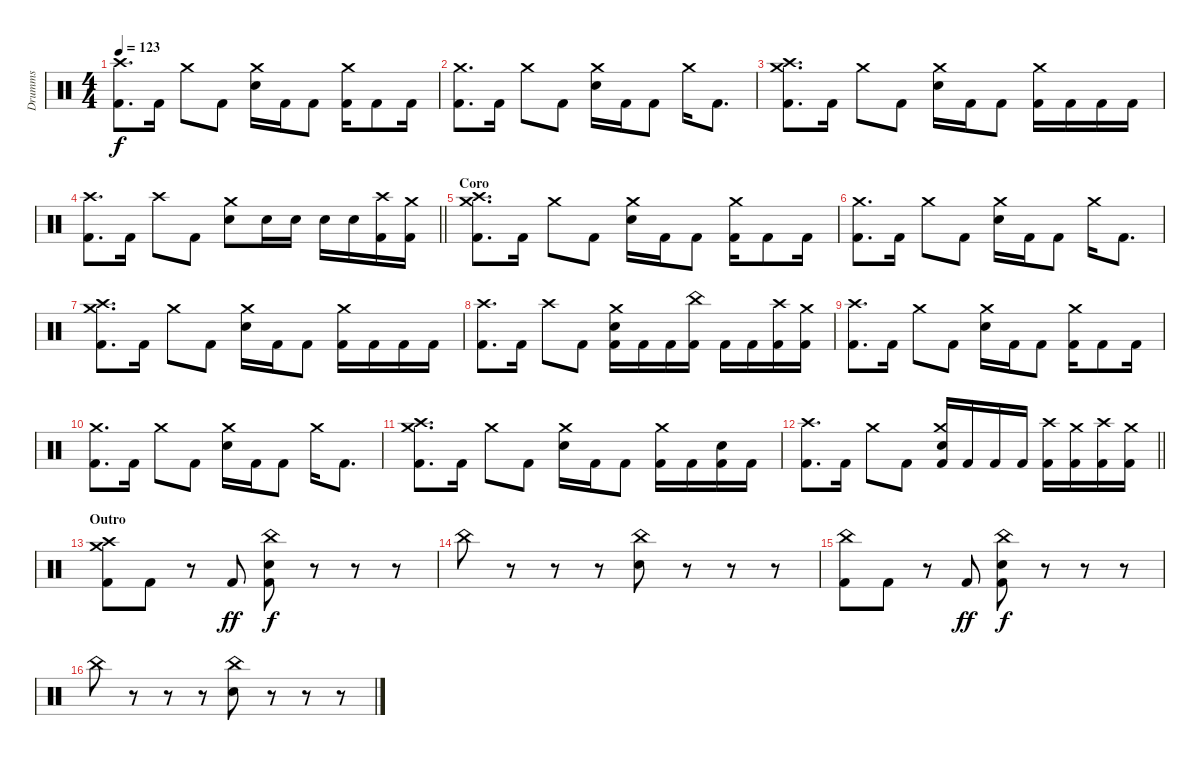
\track ("Drumms" "Drumms") {instrument percussion}
\staff {score}
\articulation defaults
\ts (4 4)
\tempo 123
\clef neutral
\ks aminor
("Crash high (hit)" "Kick (hit) 2").8{d dy f} "Kick (hit) 2".16 "Crash medium (hit)".8 "Kick (hit) 2".8 ("Crash medium (hit)" "Electric Snare (hit)").16 "Kick (hit) 2".16 "Kick (hit) 2".8 ("Crash medium (hit)" "Kick (hit) 2").16 "Kick (hit) 2".8 "Kick (hit) 2".16 |
("Crash medium (hit)" "Kick (hit) 2").8{d} "Kick (hit) 2".16 "Crash medium (hit)".8 "Kick (hit) 2".8 ("Crash medium (hit)" "Electric Snare (hit)").16 "Kick (hit) 2".16 "Kick (hit) 2".8 "Crash medium (hit)".16 "Kick (hit) 2".8{d} |
("Crash medium (hit)" "Crash high (hit)" "Kick (hit) 2").8{d} "Kick (hit) 2".16 "Crash medium (hit)".8 "Kick (hit) 2".8 ("Crash medium (hit)" "Electric Snare (hit)").16 "Kick (hit) 2".16 "Kick (hit) 2".8 ("Crash medium (hit)" "Kick (hit) 2").16 "Kick (hit) 2".16 "Kick (hit) 2".16 "Kick (hit) 2".16 |
\barLineRight lightlight
("Crash high (hit)" "Kick (hit) 2").8{d} "Kick (hit) 2".16 "Crash high (hit)".8 "Kick (hit) 2".8 ("Crash medium (hit)" "Electric Snare (hit)").8 "Electric Snare (hit)".16 "Electric Snare (hit)".16 "Electric Snare (hit)".16 "Electric Snare (hit)".16 ("Crash high (hit)" "Kick (hit) 2").16 ("Crash medium (hit)" "Kick (hit) 2").16 |
\section ("" "Coro")
("Crash medium (hit)" "Crash high (hit)" "Kick (hit) 2").8{d} "Kick (hit) 2".16 "Crash medium (hit)".8 "Kick (hit) 2".8 ("Crash medium (hit)" "Electric Snare (hit)").16 "Kick (hit) 2".16 "Kick (hit) 2".8 ("Crash medium (hit)" "Kick (hit) 2").16 "Kick (hit) 2".8 "Kick (hit) 2".16 |
("Crash medium (hit)" "Kick (hit) 2").8{d} "Kick (hit) 2".16 "Crash medium (hit)".8 "Kick (hit) 2".8 ("Crash medium (hit)" "Electric Snare (hit)").16 "Kick (hit) 2".16 "Kick (hit) 2".8 "Crash medium (hit)".16 "Kick (hit) 2".8{d} |
("Crash medium (hit)" "Crash high (hit)" "Kick (hit) 2").8{d} "Kick (hit) 2".16 "Crash medium (hit)".8 "Kick (hit) 2".8 ("Crash medium (hit)" "Electric Snare (hit)").16 "Kick (hit) 2".16 "Kick (hit) 2".8 ("Crash medium (hit)" "Kick (hit) 2").16 "Kick (hit) 2".16 "Kick (hit) 2".16 "Kick (hit) 2".16 |
("Crash high (hit)" "Kick (hit) 2").8{d} "Kick (hit) 2".16 "Crash high (hit)".8 "Kick (hit) 2".8 ("Crash medium (hit)" "Electric Snare (hit)" "Kick (hit) 2").16 "Kick (hit) 2".16 "Kick (hit) 2".16 ("China (hit)" "Kick (hit) 2").16 "Kick (hit) 2".16 "Kick (hit) 2".16 ("Crash high (hit)" "Kick (hit) 2").16 ("Crash medium (hit)" "Kick (hit) 2").16 |
("Crash high (hit)" "Kick (hit) 2").8{d} "Kick (hit) 2".16 "Crash medium (hit)".8 "Kick (hit) 2".8 ("Crash medium (hit)" "Electric Snare (hit)").16 "Kick (hit) 2".16 "Kick (hit) 2".8 ("Crash medium (hit)" "Kick (hit) 2").16 "Kick (hit) 2".8 "Kick (hit) 2".16 |
("Crash medium (hit)" "Kick (hit) 2").8{d} "Kick (hit) 2".16 "Crash medium (hit)".8 "Kick (hit) 2".8 ("Crash medium (hit)" "Electric Snare (hit)").16 "Kick (hit) 2".16 "Kick (hit) 2".8 "Crash medium (hit)".16 "Kick (hit) 2".8{d} |
("Crash medium (hit)" "Crash high (hit)" "Kick (hit) 2").8{d} "Kick (hit) 2".16 "Crash medium (hit)".8 "Kick (hit) 2".8 ("Crash medium (hit)" "Electric Snare (hit)").16 "Kick (hit) 2".16 "Kick (hit) 2".8 ("Crash medium (hit)" "Kick (hit) 2").16 "Kick (hit) 2".16 ("Electric Snare (hit)" "Kick (hit) 2").16 "Kick (hit) 2".16 |
\barLineRight lightlight
("Crash high (hit)" "Kick (hit) 2").8{d} "Kick (hit) 2".16 "Crash medium (hit)".8 "Kick (hit) 2".8 ("Crash medium (hit)" "Electric Snare (hit)" "Kick (hit) 2").16 "Kick (hit) 2".16 "Kick (hit) 2".16 "Kick (hit) 2".16 ("Crash high (hit)" "Kick (hit) 2").16 ("Crash medium (hit)" "Kick (hit) 2").16 ("Crash high (hit)" "Kick (hit) 2").16 ("Crash medium (hit)" "Kick (hit) 2").16 |
\section ("" "Outro")
("Crash medium (hit)" "Crash high (hit)" "Kick (hit) 2").8 "Kick (hit) 2".8 r.8 "Kick (hit) 2".8{dy ff} ("China (hit)" "Electric Snare (hit)" "Kick (hit) 2").8{dy f} r.8 r.8 r.8 |
"China (hit)".8 r.8 r.8 r.8 ("China (hit)" "Electric Snare (hit)").8 r.8 r.8 r.8 |
("China (hit)" "Kick (hit) 2").8 "Kick (hit) 2".8 r.8 "Kick (hit) 2".8{dy ff} ("China (hit)" "Electric Snare (hit)" "Kick (hit) 2").8{dy f} r.8 r.8 r.8 |
"China (hit)".8 r.8 r.8 r.8 ("China (hit)" "Electric Snare (hit)").8 r.8 r.8 r.8
